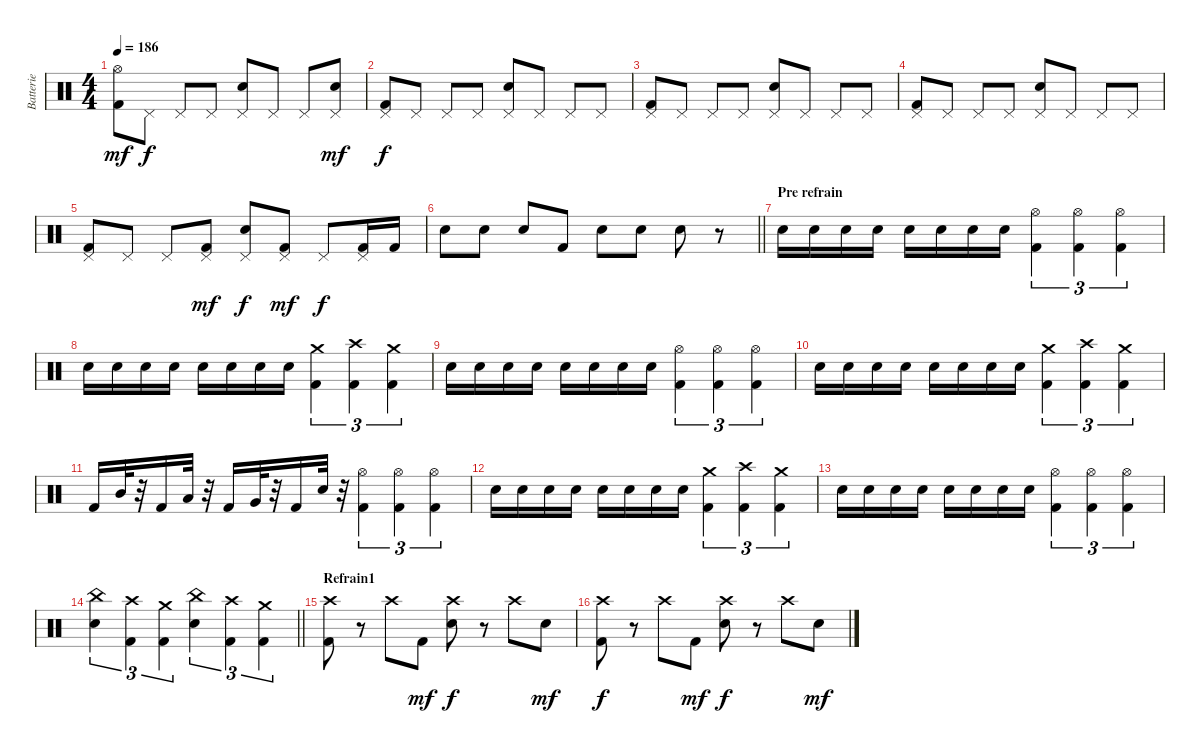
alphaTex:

\track ("Batterie" "Batterie") {instrument percussion}
\staff {score}
\articulation defaults
\ts (4 4)
\tempo 186
\clef neutral
\ks c
("Kick (hit) 2" "Hi-Hat (open)").8{dy mf} "Pedal Hi-Hat (hit)".8{dy f} "Pedal Hi-Hat (hit)".8 "Pedal Hi-Hat (hit)".8 ("Electric Snare (hit)" "Pedal Hi-Hat (hit)").8 "Pedal Hi-Hat (hit)".8 "Pedal Hi-Hat (hit)".8 ("Electric Snare (hit)" "Pedal Hi-Hat (hit)").8{dy mf} |
("Kick (hit) 2" "Pedal Hi-Hat (hit)").8{dy f} "Pedal Hi-Hat (hit)".8 "Pedal Hi-Hat (hit)".8 "Pedal Hi-Hat (hit)".8 ("Electric Snare (hit)" "Pedal Hi-Hat (hit)").8 "Pedal Hi-Hat (hit)".8 "Pedal Hi-Hat (hit)".8 "Pedal Hi-Hat (hit)".8 |
("Kick (hit) 2" "Pedal Hi-Hat (hit)").8 "Pedal Hi-Hat (hit)".8 "Pedal Hi-Hat (hit)".8 "Pedal Hi-Hat (hit)".8 ("Electric Snare (hit)" "Pedal Hi-Hat (hit)").8 "Pedal Hi-Hat (hit)".8 "Pedal Hi-Hat (hit)".8 "Pedal Hi-Hat (hit)".8 |
("Kick (hit) 2" "Pedal Hi-Hat (hit)").8 "Pedal Hi-Hat (hit)".8 "Pedal Hi-Hat (hit)".8 "Pedal Hi-Hat (hit)".8 ("Electric Snare (hit)" "Pedal Hi-Hat (hit)").8 "Pedal Hi-Hat (hit)".8 "Pedal Hi-Hat (hit)".8 "Pedal Hi-Hat (hit)".8 |
("Kick (hit) 2" "Pedal Hi-Hat (hit)").8 "Pedal Hi-Hat (hit)".8 "Pedal Hi-Hat (hit)".8 ("Kick (hit) 2" "Pedal Hi-Hat (hit)").8{dy mf} ("Electric Snare (hit)" "Pedal Hi-Hat (hit)").8{dy f} ("Kick (hit) 2" "Pedal Hi-Hat (hit)").8{dy mf} "Pedal Hi-Hat (hit)".8{dy f} ("Kick (hit) 2" "Pedal Hi-Hat (hit)").16 "Kick (hit) 2".16 |
\barLineRight lightlight "Electric Snare (hit)".8 "Electric Snare (hit)".8 "Electric Snare (hit)".8 "Kick (hit) 2".8 "Electric Snare (hit)".8 "Electric Snare (hit)".8 "Electric Snare (hit)".8
r.8 |
\section ("" "Pre refrain")
"Electric Snare (hit)".16 "Electric Snare (hit)".16 "Electric Snare (hit)".16 "Electric Snare (hit)".16 "Electric Snare (hit)".16 "Electric Snare (hit)".16 "Electric Snare (hit)".16 "Electric Snare (hit)".16 ("Kick (hit) 2" "Hi-Hat (open)").4{tu (3 2)} ("Kick (hit) 2" "Hi-Hat (open)").4{tu (3 2)} ("Kick (hit) 2" "Hi-Hat (open)").4{tu (3 2)} |
"Electric Snare (hit)".16 "Electric Snare (hit)".16 "Electric Snare (hit)".16 "Electric Snare (hit)".16 "Electric Snare (hit)".16 "Electric Snare (hit)".16 "Electric Snare (hit)".16 "Electric Snare (hit)".16 ("Kick (hit) 2" "Crash medium (hit)").4{tu (3 2)} ("Kick (hit) 2" "Crash high (hit)").4{tu (3 2)} ("Kick (hit) 2" "Crash medium (hit)").4{tu (3 2)} |
"Electric Snare (hit)".16 "Electric Snare (hit)".16 "Electric Snare (hit)".16 "Electric Snare (hit)".16 "Electric Snare (hit)".16 "Electric Snare (hit)".16 "Electric Snare (hit)".16 "Electric Snare (hit)".16 ("Kick (hit) 2" "Hi-Hat (open)").4{tu (3 2)} ("Kick (hit) 2" "Hi-Hat (open)").4{tu (3 2)} ("Kick (hit) 2" "Hi-Hat (open)").4{tu (3 2)} |
"Electric Snare (hit)".16 "Electric Snare (hit)".16 "Electric Snare (hit)".16 "Electric Snare (hit)".16 "Electric Snare (hit)".16 "Electric Snare (hit)".16 "Electric Snare (hit)".16 "Electric Snare (hit)".16 ("Kick (hit) 2" "Crash medium (hit)").4{tu (3 2)} ("Kick (hit) 2" "Crash high (hit)").4{tu (3 2)} ("Kick (hit) 2" "Crash medium (hit)").4{tu (3 2)} |
"Kick (hit) 2".16 "Mid Tom (hit)".32 r.32 "Kick (hit) 2".16 "Low Tom (hit)".32 r.32 "Kick (hit) 2".16 "Very Low Tom (hit)".32 r.32 "Kick (hit) 2".16 "Electric Snare (hit)".32 r.32 ("Kick (hit) 2" "Hi-Hat (open)").4{tu (3 2)} ("Kick (hit) 2" "Hi-Hat (open)").4{tu (3 2)} ("Kick (hit) 2" "Hi-Hat (open)").4{tu (3 2)} |
"Electric Snare (hit)".16 "Electric Snare (hit)".16 "Electric Snare (hit)".16 "Electric Snare (hit)".16 "Electric Snare (hit)".16 "Electric Snare (hit)".16 "Electric Snare (hit)".16 "Electric Snare (hit)".16 ("Kick (hit) 2" "Crash medium (hit)").4{tu (3 2)} ("Kick (hit) 2" "Crash high (hit)").4{tu (3 2)} ("Kick (hit) 2" "Crash medium (hit)").4{tu (3 2)} |
"Electric Snare (hit)".16 "Electric Snare (hit)".16 "Electric Snare (hit)".16 "Electric Snare (hit)".16 "Electric Snare (hit)".16 "Electric Snare (hit)".16 "Electric Snare (hit)".16 "Electric Snare (hit)".16 ("Kick (hit) 2" "Hi-Hat (open)").4{tu (3 2)} ("Kick (hit) 2" "Hi-Hat (open)").4{tu (3 2)} ("Kick (hit) 2" "Hi-Hat (open)").4{tu (3 2)} |
\barLineRight lightlight
("Electric Snare (hit)" "China (hit)").4{tu (3 2)} ("Kick (hit) 2" "Crash high (hit)").4{tu (3 2)} ("Kick (hit) 2" "Crash medium (hit)").4{tu (3 2)} ("Electric Snare (hit)" "China (hit)").4{tu (3 2)} ("Kick (hit) 2" "Crash high (hit)").4{tu (3 2)} ("Kick (hit) 2" "Crash medium (hit)").4{tu (3 2)} |
\section ("" "Refrain1")
("Kick (hit) 2" "Crash high (hit)").8 r.8 "Crash high (hit)".8 "Kick (hit) 2".8{dy mf} ("Electric Snare (hit)" "Crash high (hit)").8{dy f} r.8 "Crash high (hit)".8 "Electric Snare (hit)".8{dy mf} |
("Kick (hit) 2" "Crash high (hit)").8{dy f} r.8 "Crash high (hit)".8 "Kick (hit) 2".8{dy mf} ("Electric Snare (hit)" "Crash high (hit)").8{dy f} r.8 "Crash high (hit)".8 "Electric Snare (hit)".8{dy mf}
